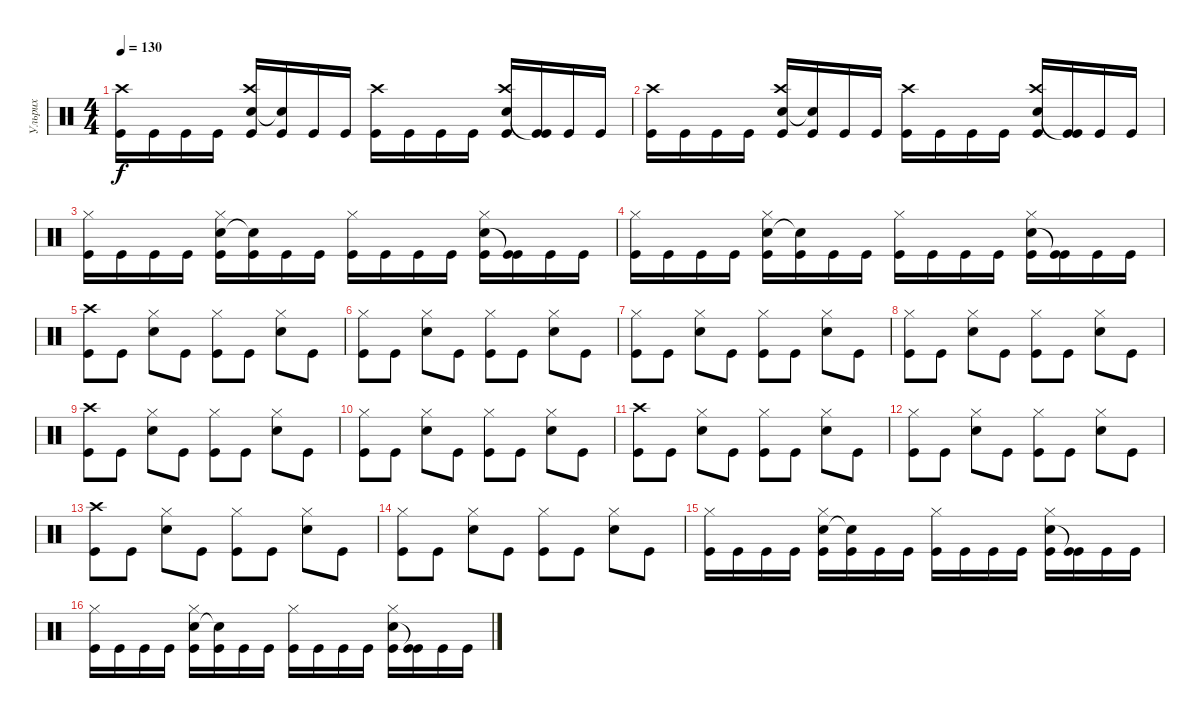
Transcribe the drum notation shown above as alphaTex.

\track ("Ульрих" "Ульрих") {instrument percussion}
\staff {score}
\articulation defaults
\ts (4 4)
\tempo 130
\clef neutral
\ks c
("Kick (hit)" "Crash high (hit)").16{dy f} "Kick (hit)".16 "Kick (hit)".16 "Kick (hit)".16 ("Snare (hit) 2" "Kick (hit)" "Crash high (hit)").16 ("Snare (hit)"{t} "Kick (hit)").16 "Kick (hit)".16 "Kick (hit)".16 ("Kick (hit)" "Crash high (hit)").16 "Kick (hit)".16 "Kick (hit)".16 "Kick (hit)".16 ("Snare (hit) 2" "Kick (hit)" "Crash high (hit)").16 ("Kick (hit)"{t} "Kick (hit)").16 "Kick (hit)".16 "Kick (hit)".16 |
("Kick (hit)" "Crash high (hit)").16 "Kick (hit)".16 "Kick (hit)".16 "Kick (hit)".16 ("Snare (hit) 2" "Kick (hit)" "Crash high (hit)").16 ("Snare (hit)"{t} "Kick (hit)").16 "Kick (hit)".16 "Kick (hit)".16 ("Kick (hit)" "Crash high (hit)").16 "Kick (hit)".16 "Kick (hit)".16 "Kick (hit)".16 ("Snare (hit) 2" "Kick (hit)" "Crash high (hit)").16 ("Kick (hit)"{t} "Kick (hit)").16 "Kick (hit)".16 "Kick (hit)".16 |
("Kick (hit)" "Hi-Hat (closed)").16 "Kick (hit)".16 "Kick (hit)".16 "Kick (hit)".16 ("Snare (hit) 2" "Kick (hit)" "Hi-Hat (closed)").16 ("Snare (hit)"{t} "Kick (hit)").16 "Kick (hit)".16 "Kick (hit)".16 ("Kick (hit)" "Hi-Hat (closed)").16 "Kick (hit)".16 "Kick (hit)".16 "Kick (hit)".16 ("Snare (hit) 2" "Kick (hit)" "Hi-Hat (closed)").16 ("Kick (hit)"{t} "Kick (hit)").16 "Kick (hit)".16 "Kick (hit)".16 |
("Kick (hit)" "Hi-Hat (closed)").16 "Kick (hit)".16 "Kick (hit)".16 "Kick (hit)".16 ("Snare (hit) 2" "Kick (hit)" "Hi-Hat (closed)").16 ("Snare (hit)"{t} "Kick (hit)").16 "Kick (hit)".16 "Kick (hit)".16 ("Kick (hit)" "Hi-Hat (closed)").16 "Kick (hit)".16 "Kick (hit)".16 "Kick (hit)".16 ("Snare (hit) 2" "Kick (hit)" "Hi-Hat (closed)").16 ("Kick (hit)"{t} "Kick (hit)").16 "Kick (hit)".16 "Kick (hit)".16 |
("Kick (hit)" "Crash high (hit)").8 "Kick (hit)".8 ("Snare (hit) 2" "Hi-Hat (closed)").8 "Kick (hit)".8 ("Kick (hit)" "Hi-Hat (closed)").8 "Kick (hit)".8 ("Snare (hit) 2" "Hi-Hat (closed)").8 "Kick (hit)".8 |
("Kick (hit)" "Hi-Hat (closed)").8 "Kick (hit)".8 ("Snare (hit) 2" "Hi-Hat (closed)").8 "Kick (hit)".8 ("Kick (hit)" "Hi-Hat (closed)").8 "Kick (hit)".8 ("Snare (hit) 2" "Hi-Hat (closed)").8 "Kick (hit)".8 |
("Kick (hit)" "Hi-Hat (closed)").8 "Kick (hit)".8 ("Snare (hit) 2" "Hi-Hat (closed)").8 "Kick (hit)".8 ("Kick (hit)" "Hi-Hat (closed)").8 "Kick (hit)".8 ("Snare (hit) 2" "Hi-Hat (closed)").8 "Kick (hit)".8 |
("Kick (hit)" "Hi-Hat (closed)").8 "Kick (hit)".8 ("Snare (hit) 2" "Hi-Hat (closed)").8 "Kick (hit)".8 ("Kick (hit)" "Hi-Hat (closed)").8 "Kick (hit)".8 ("Snare (hit) 2" "Hi-Hat (closed)").8 "Kick (hit)".8 |
("Kick (hit)" "Crash high (hit)").8 "Kick (hit)".8 ("Snare (hit) 2" "Hi-Hat (closed)").8 "Kick (hit)".8 ("Kick (hit)" "Hi-Hat (closed)").8 "Kick (hit)".8 ("Snare (hit) 2" "Hi-Hat (closed)").8 "Kick (hit)".8 |
("Kick (hit)" "Hi-Hat (closed)").8 "Kick (hit)".8 ("Snare (hit) 2" "Hi-Hat (closed)").8 "Kick (hit)".8 ("Kick (hit)" "Hi-Hat (closed)").8 "Kick (hit)".8 ("Snare (hit) 2" "Hi-Hat (closed)").8 "Kick (hit)".8 |
("Kick (hit)" "Crash high (hit)").8 "Kick (hit)".8 ("Snare (hit) 2" "Hi-Hat (closed)").8 "Kick (hit)".8 ("Kick (hit)" "Hi-Hat (closed)").8 "Kick (hit)".8 ("Snare (hit) 2" "Hi-Hat (closed)").8 "Kick (hit)".8 |
("Kick (hit)" "Hi-Hat (closed)").8 "Kick (hit)".8 ("Snare (hit) 2" "Hi-Hat (closed)").8 "Kick (hit)".8 ("Kick (hit)" "Hi-Hat (closed)").8 "Kick (hit)".8 ("Snare (hit) 2" "Hi-Hat (closed)").8 "Kick (hit)".8 |
("Kick (hit)" "Crash high (hit)").8 "Kick (hit)".8 ("Snare (hit) 2" "Hi-Hat (closed)").8 "Kick (hit)".8 ("Kick (hit)" "Hi-Hat (closed)").8 "Kick (hit)".8 ("Snare (hit) 2" "Hi-Hat (closed)").8 "Kick (hit)".8 |
("Kick (hit)" "Hi-Hat (closed)").8 "Kick (hit)".8 ("Snare (hit) 2" "Hi-Hat (closed)").8 "Kick (hit)".8 ("Kick (hit)" "Hi-Hat (closed)").8 "Kick (hit)".8 ("Snare (hit) 2" "Hi-Hat (closed)").8 "Kick (hit)".8 |
("Kick (hit)" "Hi-Hat (closed)").16 "Kick (hit)".16 "Kick (hit)".16 "Kick (hit)".16 ("Snare (hit) 2" "Kick (hit)" "Hi-Hat (closed)").16 ("Snare (hit)"{t} "Kick (hit)").16 "Kick (hit)".16 "Kick (hit)".16 ("Kick (hit)" "Hi-Hat (closed)").16 "Kick (hit)".16 "Kick (hit)".16 "Kick (hit)".16 ("Snare (hit) 2" "Kick (hit)" "Hi-Hat (closed)").16 ("Kick (hit)"{t} "Kick (hit)").16 "Kick (hit)".16 "Kick (hit)".16 |
("Kick (hit)" "Hi-Hat (closed)").16 "Kick (hit)".16 "Kick (hit)".16 "Kick (hit)".16 ("Snare (hit) 2" "Kick (hit)" "Hi-Hat (closed)").16 ("Snare (hit)"{t} "Kick (hit)").16 "Kick (hit)".16 "Kick (hit)".16 ("Kick (hit)" "Hi-Hat (closed)").16 "Kick (hit)".16 "Kick (hit)".16 "Kick (hit)".16 ("Snare (hit) 2" "Kick (hit)" "Hi-Hat (closed)").16 ("Kick (hit)"{t} "Kick (hit)").16 "Kick (hit)".16 "Kick (hit)".16
